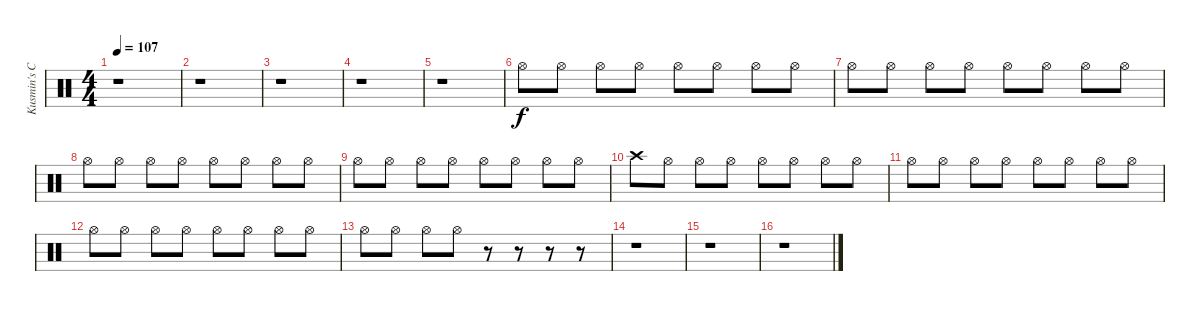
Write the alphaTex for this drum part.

\track ("Kusmin's Cymballage" "Kusmin's C") {instrument percussion}
\staff {score}
\articulation defaults
\ts (4 4)
\tempo 107
\clef neutral
\ks c
r.1{dy f} |
r.1 |
r.1 |
r.1 |
r.1 |
"Hi-Hat (open)".8 "Hi-Hat (open)".8 "Hi-Hat (open)".8 "Hi-Hat (open)".8 "Hi-Hat (open)".8 "Hi-Hat (open)".8 "Hi-Hat (open)".8 "Hi-Hat (open)".8 |
"Hi-Hat (open)".8 "Hi-Hat (open)".8 "Hi-Hat (open)".8 "Hi-Hat (open)".8 "Hi-Hat (open)".8 "Hi-Hat (open)".8 "Hi-Hat (open)".8 "Hi-Hat (open)".8 |
"Hi-Hat (open)".8 "Hi-Hat (open)".8 "Hi-Hat (open)".8 "Hi-Hat (open)".8 "Hi-Hat (open)".8 "Hi-Hat (open)".8 "Hi-Hat (open)".8 "Hi-Hat (open)".8 |
"Hi-Hat (open)".8 "Hi-Hat (open)".8 "Hi-Hat (open)".8 "Hi-Hat (open)".8 "Hi-Hat (open)".8 "Hi-Hat (open)".8 "Hi-Hat (open)".8 "Hi-Hat (open)".8 |
"Crash high (hit)".8 "Hi-Hat (open)".8 "Hi-Hat (open)".8 "Hi-Hat (open)".8 "Hi-Hat (open)".8 "Hi-Hat (open)".8 "Hi-Hat (open)".8 "Hi-Hat (open)".8 |
"Hi-Hat (open)".8 "Hi-Hat (open)".8 "Hi-Hat (open)".8 "Hi-Hat (open)".8 "Hi-Hat (open)".8 "Hi-Hat (open)".8 "Hi-Hat (open)".8 "Hi-Hat (open)".8 |
"Hi-Hat (open)".8 "Hi-Hat (open)".8 "Hi-Hat (open)".8 "Hi-Hat (open)".8 "Hi-Hat (open)".8 "Hi-Hat (open)".8 "Hi-Hat (open)".8 "Hi-Hat (open)".8 |
"Hi-Hat (open)".8 "Hi-Hat (open)".8 "Hi-Hat (open)".8 "Hi-Hat (open)".8 r.8 r.8 r.8 r.8 |
r.1 |
r.1 |
r.1
